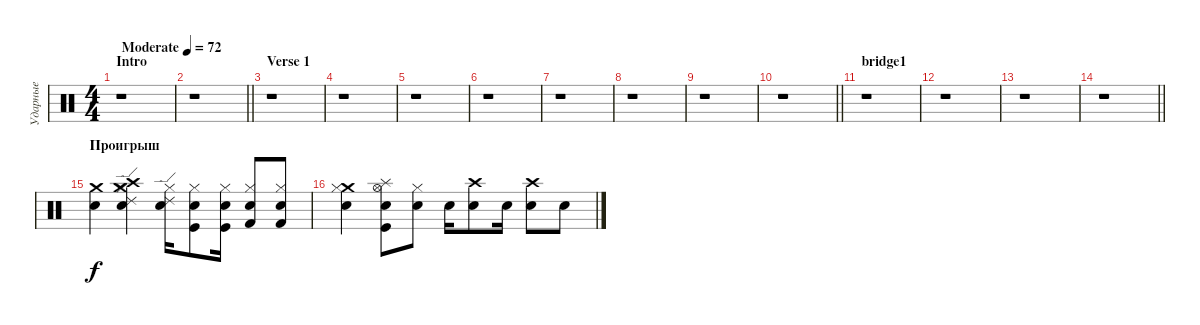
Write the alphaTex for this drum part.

\track ("Ударные" "Ударные") {instrument percussion}
\staff {score}
\articulation defaults
\ts (4 4)
\section ("" "Intro")
\tempo (72 "Moderate")
\clef neutral
\ks c
r.1{dy f} |
\barLineRight lightlight
r.1 |
\section ("" "Verse 1")
r.1 |
r.1 |
r.1 |
r.1 |
r.1 |
r.1 |
r.1 |
\barLineRight lightlight
r.1 |
\section ("" "bridge1")
r.1 |
r.1 |
r.1 |
\barLineRight lightlight
r.1 |
\section ("" "Проигрыш")
("Crash medium (hit)" "Electric Snare (hit)").4 ("Crash high (hit)" "Ride (edge) 2" "Snare (hit) 2" "Crash medium (hit)" "Hi-Hat (closed)").4 ("Ride (edge) 2" "Hi-Hat (closed)" "Electric Snare (hit)").16 ("Kick (hit)" "Hi-Hat (closed)" "Electric Snare (hit)").8 ("Kick (hit)" "Hi-Hat (closed)" "Electric Snare (hit)").16 ("Kick (hit) 2" "Hi-Hat (closed)" "Electric Snare (hit)").8 ("Kick (hit) 2" "Hi-Hat (closed)" "Electric Snare (hit)").8 |
("Crash medium (hit)" "Electric Snare (hit)" "Hi-Hat (closed)").4 ("Electric Snare (hit)" "Splash (hit)" "Kick (hit)" "Hi-Hat (open)").8 ("Electric Snare (hit)" "Hi-Hat (closed)").8 "Snare (hit) 2".16 ("Electric Snare (hit)" "Crash high (hit)").8 "Snare (hit) 2".16 ("Electric Snare (hit)" "Crash high (hit)").8 "Electric Snare (hit)".8
